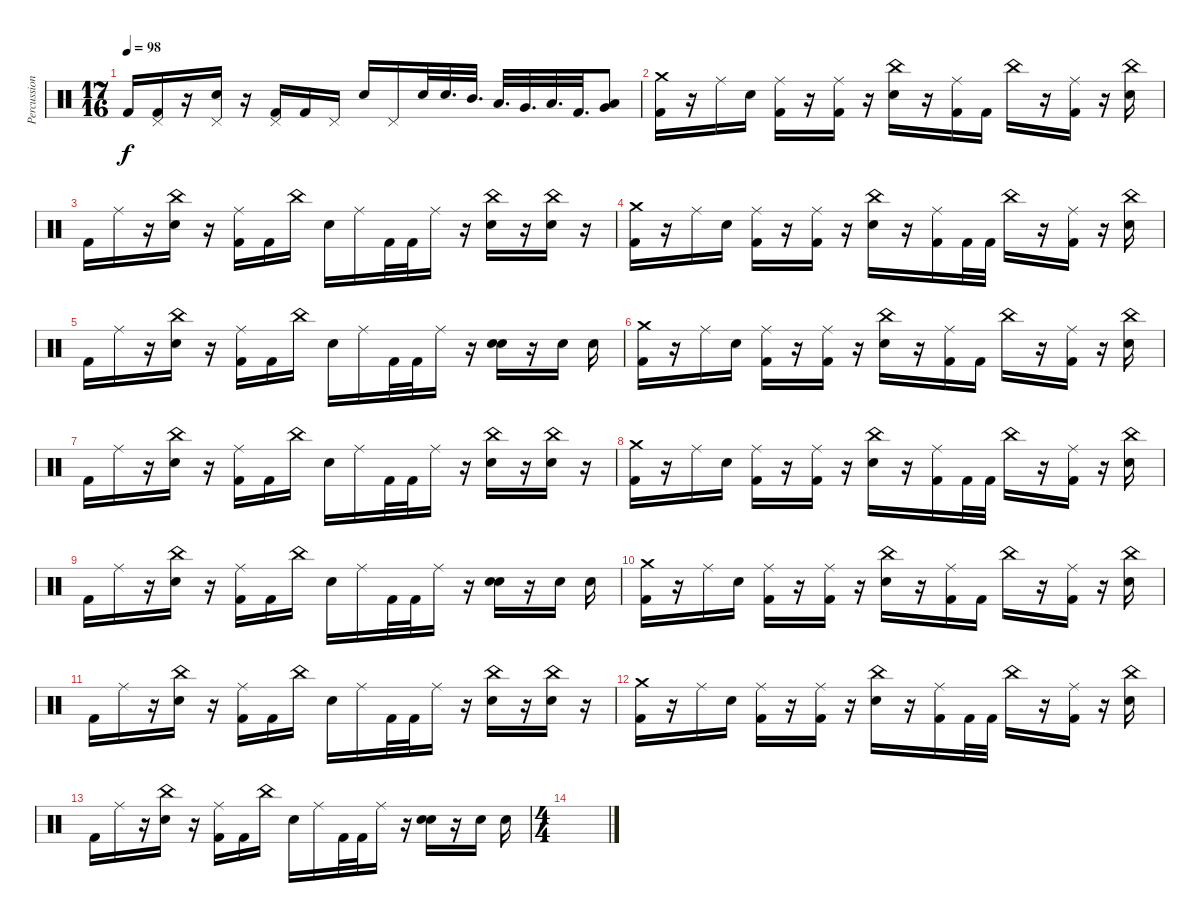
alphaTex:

\track ("Percussion" "Percussion") {instrument percussion}
\staff {score}
\articulation defaults
\ts (17 16)
\tempo 98
\clef neutral
\ks c "Kick (hit) 2".16{dy f}
("Pedal Hi-Hat (hit)" "Kick (hit) 2").16 r.16 ("Pedal Hi-Hat (hit)" "Electric Snare (hit)").16 r.16 ("Pedal Hi-Hat (hit)" "Kick (hit) 2").16 "Kick (hit) 2".16 "Pedal Hi-Hat (hit)".16 "Electric Snare (hit)".16 "Pedal Hi-Hat (hit)".16 "Electric Snare (hit)".32 "Electric Snare (hit)".32{d} "Mid Tom (hit)".32{d} "Low Tom (hit)".32{d} "Very Low Tom (hit)".32{d} "Low Floor Tom (hit)".32{d} "Kick (hit) 2".32{d} ("Very Low Tom (hit)" "Low Floor Tom (hit)").8 |
("Crash medium (hit)" "Kick (hit) 2").16 r.16 "Ride (middle)".16 "Electric Snare (hit)".16 ("Ride (middle)" "Kick (hit) 2").16 r.16 ("Ride (middle)" "Kick (hit) 2").16 r.16 ("China (hit)" "Electric Snare (hit)").16 r.16 ("Ride (middle)" "Kick (hit) 2").16 "Kick (hit) 2".16 "China (hit)".16 r.16 ("Ride (middle)" "Kick (hit) 2").16 r.16 ("China (hit)" "Electric Snare (hit)").16 |
"Kick (hit) 2".16 "Ride (middle)".16 r.16 ("China (hit)" "Electric Snare (hit)").16 r.16 ("Ride (middle)" "Kick (hit) 2").16 "Kick (hit) 2".16 "China (hit)".16 "Electric Snare (hit)".16 "Ride (middle)".16 "Kick (hit) 2".32 "Kick (hit) 2".32 "Ride (middle)".16 r.16 ("China (hit)" "Electric Snare (hit)").16 r.16 ("China (hit)" "Electric Snare (hit)").16 r.16 |
("Crash medium (hit)" "Kick (hit) 2").16 r.16 "Ride (middle)".16 "Electric Snare (hit)".16 ("Ride (middle)" "Kick (hit) 2").16 r.16 ("Ride (middle)" "Kick (hit) 2").16 r.16 ("China (hit)" "Electric Snare (hit)").16 r.16 ("Ride (middle)" "Kick (hit) 2").16 "Kick (hit) 2".32 "Kick (hit) 2".32 "China (hit)".16 r.16 ("Ride (middle)" "Kick (hit) 2").16 r.16 ("China (hit)" "Electric Snare (hit)").16 |
"Kick (hit) 2".16 "Ride (middle)".16 r.16 ("China (hit)" "Electric Snare (hit)").16 r.16 ("Ride (middle)" "Kick (hit) 2").16 "Kick (hit) 2".16 "China (hit)".16 "Electric Snare (hit)".16 "Ride (middle)".16 "Kick (hit) 2".32 "Kick (hit) 2".32 "Ride (middle)".16 r.16 ("Electric Snare (hit)" "Electric Snare (hit)").16 r.16 "Electric Snare (hit)".16 "Electric Snare (hit)".16 |
("Crash medium (hit)" "Kick (hit) 2").16 r.16 "Ride (middle)".16 "Electric Snare (hit)".16 ("Ride (middle)" "Kick (hit) 2").16 r.16 ("Ride (middle)" "Kick (hit) 2").16 r.16 ("China (hit)" "Electric Snare (hit)").16 r.16 ("Ride (middle)" "Kick (hit) 2").16 "Kick (hit) 2".16 "China (hit)".16 r.16 ("Ride (middle)" "Kick (hit) 2").16 r.16 ("China (hit)" "Electric Snare (hit)").16 |
"Kick (hit) 2".16 "Ride (middle)".16 r.16 ("China (hit)" "Electric Snare (hit)").16 r.16 ("Ride (middle)" "Kick (hit) 2").16 "Kick (hit) 2".16 "China (hit)".16 "Electric Snare (hit)".16 "Ride (middle)".16 "Kick (hit) 2".32 "Kick (hit) 2".32 "Ride (middle)".16 r.16 ("China (hit)" "Electric Snare (hit)").16 r.16 ("China (hit)" "Electric Snare (hit)").16 r.16 |
("Crash medium (hit)" "Kick (hit) 2").16 r.16 "Ride (middle)".16 "Electric Snare (hit)".16 ("Ride (middle)" "Kick (hit) 2").16 r.16 ("Ride (middle)" "Kick (hit) 2").16 r.16 ("China (hit)" "Electric Snare (hit)").16 r.16 ("Ride (middle)" "Kick (hit) 2").16 "Kick (hit) 2".32 "Kick (hit) 2".32 "China (hit)".16 r.16 ("Ride (middle)" "Kick (hit) 2").16 r.16 ("China (hit)" "Electric Snare (hit)").16 |
"Kick (hit) 2".16 "Ride (middle)".16 r.16 ("China (hit)" "Electric Snare (hit)").16 r.16 ("Ride (middle)" "Kick (hit) 2").16 "Kick (hit) 2".16 "China (hit)".16 "Electric Snare (hit)".16 "Ride (middle)".16 "Kick (hit) 2".32 "Kick (hit) 2".32 "Ride (middle)".16 r.16 ("Electric Snare (hit)" "Electric Snare (hit)").16 r.16 "Electric Snare (hit)".16 "Electric Snare (hit)".16 |
("Crash medium (hit)" "Kick (hit) 2").16 r.16 "Ride (middle)".16 "Electric Snare (hit)".16 ("Ride (middle)" "Kick (hit) 2").16 r.16 ("Ride (middle)" "Kick (hit) 2").16 r.16 ("China (hit)" "Electric Snare (hit)").16 r.16 ("Ride (middle)" "Kick (hit) 2").16 "Kick (hit) 2".16 "China (hit)".16 r.16 ("Ride (middle)" "Kick (hit) 2").16 r.16 ("China (hit)" "Electric Snare (hit)").16 |
"Kick (hit) 2".16 "Ride (middle)".16 r.16 ("China (hit)" "Electric Snare (hit)").16 r.16 ("Ride (middle)" "Kick (hit) 2").16 "Kick (hit) 2".16 "China (hit)".16 "Electric Snare (hit)".16 "Ride (middle)".16 "Kick (hit) 2".32 "Kick (hit) 2".32 "Ride (middle)".16 r.16 ("China (hit)" "Electric Snare (hit)").16 r.16 ("China (hit)" "Electric Snare (hit)").16 r.16 |
("Crash medium (hit)" "Kick (hit) 2").16 r.16 "Ride (middle)".16 "Electric Snare (hit)".16 ("Ride (middle)" "Kick (hit) 2").16 r.16 ("Ride (middle)" "Kick (hit) 2").16 r.16 ("China (hit)" "Electric Snare (hit)").16 r.16 ("Ride (middle)" "Kick (hit) 2").16 "Kick (hit) 2".32 "Kick (hit) 2".32 "China (hit)".16 r.16 ("Ride (middle)" "Kick (hit) 2").16 r.16 ("China (hit)" "Electric Snare (hit)").16 |
"Kick (hit) 2".16 "Ride (middle)".16 r.16 ("China (hit)" "Electric Snare (hit)").16 r.16 ("Ride (middle)" "Kick (hit) 2").16 "Kick (hit) 2".16 "China (hit)".16 "Electric Snare (hit)".16 "Ride (middle)".16 "Kick (hit) 2".32 "Kick (hit) 2".32 "Ride (middle)".16 r.16 ("Electric Snare (hit)" "Electric Snare (hit)").16 r.16 "Electric Snare (hit)".16 "Electric Snare (hit)".16 |
\ts (4 4)
